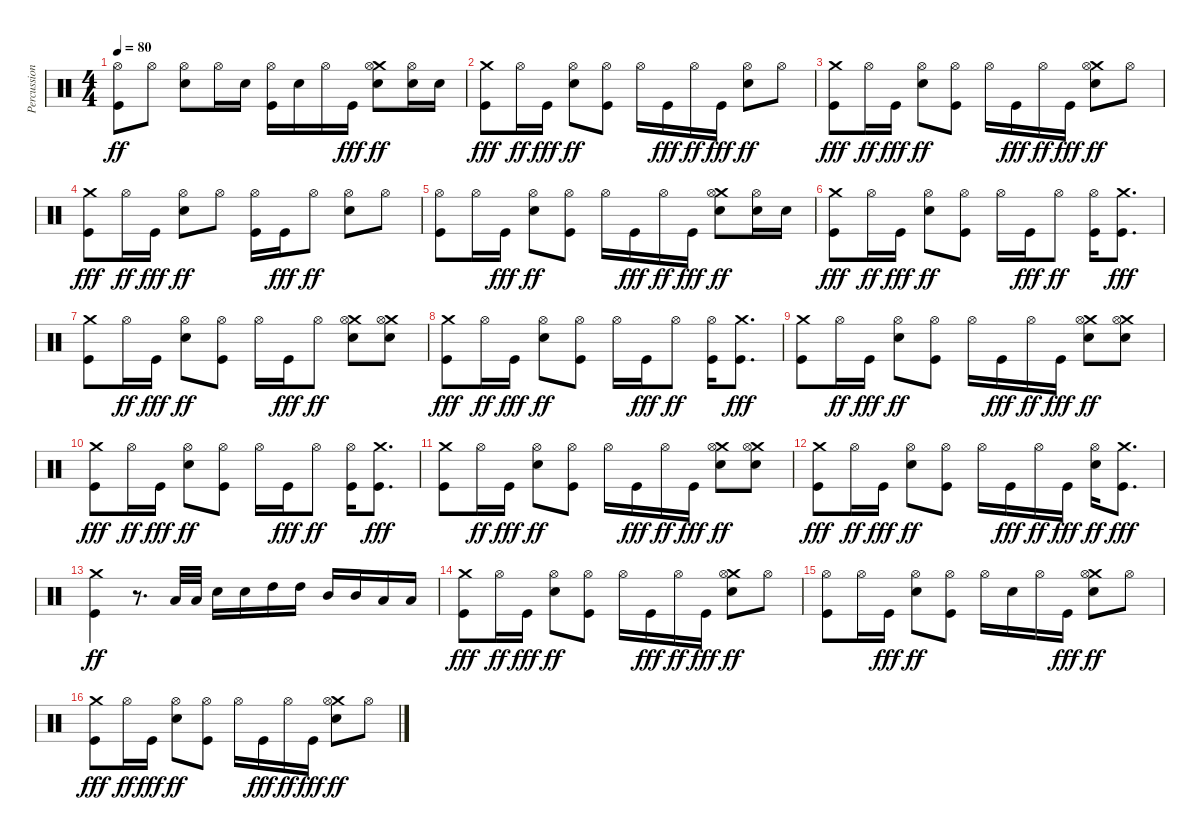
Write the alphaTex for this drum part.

\track ("Percussion" "Percussion") {instrument percussion}
\staff {score}
\articulation defaults
\ts (4 4)
\tempo 80
\clef neutral
\ks c
("Kick (hit)" "Hi-Hat (open)").8{dy ff} "Hi-Hat (open)".8 ("Snare (hit) 2" "Hi-Hat (open)").8 "Hi-Hat (open)".16 "Snare (hit) 2".16 ("Kick (hit)" "Hi-Hat (open)").16 "Snare (hit) 2".16 "Hi-Hat (open)".16 "Kick (hit)".16{dy fff} ("Snare (hit) 2" "Crash medium (hit)" "Hi-Hat (open)").8{dy ff} ("Snare (hit) 2" "Hi-Hat (open)").16 "Snare (hit) 2".16 |
("Kick (hit)" "Crash medium (hit)").8{dy fff} "Hi-Hat (open)".16{dy ff} "Kick (hit)".16{dy fff} ("Snare (hit) 2" "Hi-Hat (open)").8{dy ff} ("Kick (hit)" "Hi-Hat (open)").8 "Hi-Hat (open)".16 "Kick (hit)".16{dy fff} "Hi-Hat (open)".16{dy ff} "Kick (hit)".16{dy fff} ("Snare (hit) 2" "Hi-Hat (open)").8{dy ff} "Hi-Hat (open)".8 |
("Kick (hit)" "Crash medium (hit)").8{dy fff} "Hi-Hat (open)".16{dy ff} "Kick (hit)".16{dy fff} ("Snare (hit) 2" "Hi-Hat (open)").8{dy ff} ("Kick (hit)" "Hi-Hat (open)").8 "Hi-Hat (open)".16 "Kick (hit)".16{dy fff} "Hi-Hat (open)".16{dy ff} "Kick (hit)".16{dy fff} ("Snare (hit) 2" "Crash medium (hit)" "Hi-Hat (open)").8{dy ff} "Hi-Hat (open)".8 |
("Kick (hit)" "Crash medium (hit)").8{dy fff} "Hi-Hat (open)".16{dy ff} "Kick (hit)".16{dy fff} ("Snare (hit) 2" "Hi-Hat (open)").8{dy ff} "Hi-Hat (open)".8 ("Kick (hit)" "Hi-Hat (open)").16 "Kick (hit)".16{dy fff} "Hi-Hat (open)".8{dy ff} ("Snare (hit) 2" "Hi-Hat (open)").8 "Hi-Hat (open)".8 |
("Kick (hit)" "Hi-Hat (open)").8 "Hi-Hat (open)".16 "Kick (hit)".16{dy fff} ("Snare (hit) 2" "Hi-Hat (open)").8{dy ff} ("Kick (hit)" "Hi-Hat (open)").8 "Hi-Hat (open)".16 "Kick (hit)".16{dy fff} "Hi-Hat (open)".16{dy ff} "Kick (hit)".16{dy fff} ("Snare (hit) 2" "Crash medium (hit)" "Hi-Hat (open)").8{dy ff} ("Snare (hit) 2" "Hi-Hat (open)").16 "Snare (hit) 2".16 |
("Kick (hit)" "Crash medium (hit)").8{dy fff} "Hi-Hat (open)".16{dy ff} "Kick (hit)".16{dy fff} ("Snare (hit) 2" "Hi-Hat (open)").8{dy ff} ("Kick (hit)" "Hi-Hat (open)").8 "Hi-Hat (open)".16 "Kick (hit)".16{dy fff} "Hi-Hat (open)".8{dy ff} ("Kick (hit)" "Hi-Hat (open)").16 ("Kick (hit)" "Crash medium (hit)").8{d dy fff} |
("Kick (hit)" "Crash medium (hit)").8 "Hi-Hat (open)".16{dy ff} "Kick (hit)".16{dy fff} ("Snare (hit) 2" "Hi-Hat (open)").8{dy ff} ("Kick (hit)" "Hi-Hat (open)").8 "Hi-Hat (open)".16 "Kick (hit)".16{dy fff} "Hi-Hat (open)".8{dy ff} ("Snare (hit) 2" "Crash medium (hit)" "Hi-Hat (open)").8 ("Snare (hit) 2" "Crash medium (hit)" "Hi-Hat (open)").8 |
("Kick (hit)" "Crash medium (hit)").8{dy fff} "Hi-Hat (open)".16{dy ff} "Kick (hit)".16{dy fff} ("Snare (hit) 2" "Hi-Hat (open)").8{dy ff} ("Kick (hit)" "Hi-Hat (open)").8 "Hi-Hat (open)".16 "Kick (hit)".16{dy fff} "Hi-Hat (open)".8{dy ff} ("Kick (hit)" "Hi-Hat (open)").16 ("Kick (hit)" "Crash medium (hit)").8{d dy fff} |
("Kick (hit)" "Crash medium (hit)").8 "Hi-Hat (open)".16{dy ff} "Kick (hit)".16{dy fff} ("Snare (hit) 2" "Hi-Hat (open)").8{dy ff} ("Kick (hit)" "Hi-Hat (open)").8 "Hi-Hat (open)".16 "Kick (hit)".16{dy fff} "Hi-Hat (open)".16{dy ff} "Kick (hit)".16{dy fff} ("Snare (hit) 2" "Crash medium (hit)" "Hi-Hat (open)").8{dy ff} ("Snare (hit) 2" "Crash medium (hit)" "Hi-Hat (open)").8 |
("Kick (hit)" "Crash medium (hit)").8{dy fff} "Hi-Hat (open)".16{dy ff} "Kick (hit)".16{dy fff} ("Snare (hit) 2" "Hi-Hat (open)").8{dy ff} ("Kick (hit)" "Hi-Hat (open)").8 "Hi-Hat (open)".16 "Kick (hit)".16{dy fff} "Hi-Hat (open)".8{dy ff} ("Kick (hit)" "Hi-Hat (open)").16 ("Kick (hit)" "Crash medium (hit)").8{d dy fff} |
("Kick (hit)" "Crash medium (hit)").8 "Hi-Hat (open)".16{dy ff} "Kick (hit)".16{dy fff} ("Snare (hit) 2" "Hi-Hat (open)").8{dy ff} ("Kick (hit)" "Hi-Hat (open)").8 "Hi-Hat (open)".16 "Kick (hit)".16{dy fff} "Hi-Hat (open)".16{dy ff} "Kick (hit)".16{dy fff} ("Snare (hit) 2" "Crash medium (hit)" "Hi-Hat (open)").8{dy ff} ("Snare (hit) 2" "Crash medium (hit)" "Hi-Hat (open)").8 |
("Kick (hit)" "Crash medium (hit)").8{dy fff} "Hi-Hat (open)".16{dy ff} "Kick (hit)".16{dy fff} ("Snare (hit) 2" "Hi-Hat (open)").8{dy ff} ("Kick (hit)" "Hi-Hat (open)").8 "Hi-Hat (open)".16 "Kick (hit)".16{dy fff} "Hi-Hat (open)".16{dy ff} "Kick (hit)".16{dy fff} ("Snare (hit) 2" "Hi-Hat (open)").16{dy ff} ("Kick (hit)" "Crash medium (hit)").8{d dy fff} |
("Kick (hit)" "Crash medium (hit)").4{dy ff} r.8{d} "Low Tom (hit)".32 "Low Tom (hit)".32 "Snare (hit) 2".16 "Snare (hit) 2".16 "High Tom (hit)".16 "High Tom (hit)".16 "Mid Tom (hit)".16 "Mid Tom (hit)".16 "Low Tom (hit)".16 "Low Tom (hit)".16 |
("Kick (hit)" "Crash medium (hit)").8{dy fff} "Hi-Hat (open)".16{dy ff} "Kick (hit)".16{dy fff} ("Snare (hit) 2" "Hi-Hat (open)").8{dy ff} ("Kick (hit)" "Hi-Hat (open)").8 "Hi-Hat (open)".16 "Kick (hit)".16{dy fff} "Hi-Hat (open)".16{dy ff} "Kick (hit)".16{dy fff} ("Snare (hit) 2" "Crash medium (hit)" "Hi-Hat (open)").8{dy ff} "Hi-Hat (open)".8 |
("Kick (hit)" "Hi-Hat (open)").8 "Hi-Hat (open)".16 "Kick (hit)".16{dy fff} ("Snare (hit) 2" "Hi-Hat (open)").8{dy ff} ("Kick (hit)" "Hi-Hat (open)").8 "Hi-Hat (open)".16 "Snare (hit) 2".16 "Hi-Hat (open)".16 "Kick (hit)".16{dy fff} ("Snare (hit) 2" "Crash medium (hit)" "Hi-Hat (open)").8{dy ff} "Hi-Hat (open)".8 |
("Kick (hit)" "Crash medium (hit)").8{dy fff} "Hi-Hat (open)".16{dy ff} "Kick (hit)".16{dy fff} ("Snare (hit) 2" "Hi-Hat (open)").8{dy ff} ("Kick (hit)" "Hi-Hat (open)").8 "Hi-Hat (open)".16 "Kick (hit)".16{dy fff} "Hi-Hat (open)".16{dy ff} "Kick (hit)".16{dy fff} ("Snare (hit) 2" "Crash medium (hit)" "Hi-Hat (open)").8{dy ff} "Hi-Hat (open)".8
